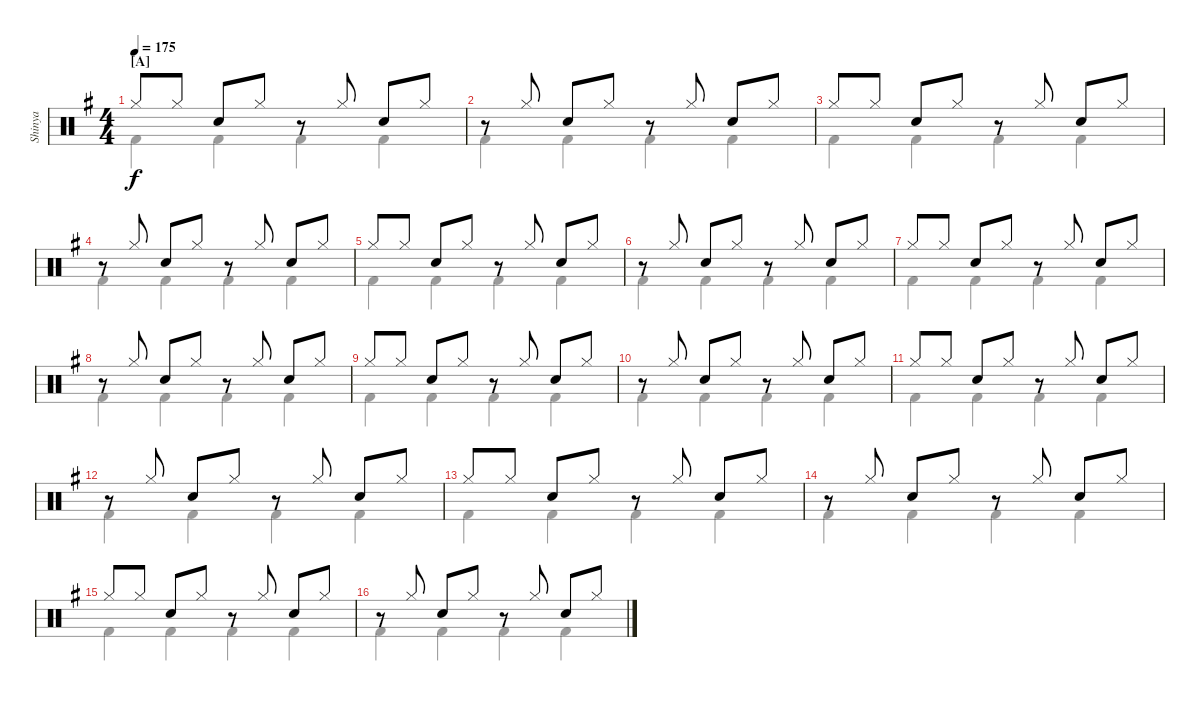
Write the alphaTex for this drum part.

\track ("Shinya" "Shinya") {instrument percussion}
\staff {score}
\articulation defaults
\voice
\ts (4 4)
\section ("" "[A]")
\tempo 175
\clef neutral
\ks g "Hi-Hat (closed)".8{dy f} "Hi-Hat (closed)".8 "Snare (hit) 2".8 "Hi-Hat (closed)".8
r.8 "Hi-Hat (closed)".8 "Snare (hit) 2".8 "Hi-Hat (closed)".8 |
r.8 "Hi-Hat (closed)".8 "Snare (hit) 2".8 "Hi-Hat (closed)".8 r.8 "Hi-Hat (closed)".8 "Snare (hit) 2".8 "Hi-Hat (closed)".8 |
"Hi-Hat (closed)".8 "Hi-Hat (closed)".8 "Snare (hit) 2".8 "Hi-Hat (closed)".8 r.8 "Hi-Hat (closed)".8 "Snare (hit) 2".8 "Hi-Hat (closed)".8 |
r.8 "Hi-Hat (closed)".8 "Snare (hit) 2".8 "Hi-Hat (closed)".8 r.8 "Hi-Hat (closed)".8 "Snare (hit) 2".8 "Hi-Hat (closed)".8 |
"Hi-Hat (closed)".8 "Hi-Hat (closed)".8 "Snare (hit) 2".8 "Hi-Hat (closed)".8 r.8 "Hi-Hat (closed)".8 "Snare (hit) 2".8 "Hi-Hat (closed)".8 |
r.8 "Hi-Hat (closed)".8 "Snare (hit) 2".8 "Hi-Hat (closed)".8 r.8 "Hi-Hat (closed)".8 "Snare (hit) 2".8 "Hi-Hat (closed)".8 |
"Hi-Hat (closed)".8 "Hi-Hat (closed)".8 "Snare (hit) 2".8 "Hi-Hat (closed)".8 r.8 "Hi-Hat (closed)".8 "Snare (hit) 2".8 "Hi-Hat (closed)".8 |
r.8 "Hi-Hat (closed)".8 "Snare (hit) 2".8 "Hi-Hat (closed)".8 r.8 "Hi-Hat (closed)".8 "Snare (hit) 2".8 "Hi-Hat (closed)".8 |
"Hi-Hat (closed)".8 "Hi-Hat (closed)".8 "Snare (hit) 2".8 "Hi-Hat (closed)".8 r.8 "Hi-Hat (closed)".8 "Snare (hit) 2".8 "Hi-Hat (closed)".8 |
r.8 "Hi-Hat (closed)".8 "Snare (hit) 2".8 "Hi-Hat (closed)".8 r.8 "Hi-Hat (closed)".8 "Snare (hit) 2".8 "Hi-Hat (closed)".8 |
"Hi-Hat (closed)".8 "Hi-Hat (closed)".8 "Snare (hit) 2".8 "Hi-Hat (closed)".8 r.8 "Hi-Hat (closed)".8 "Snare (hit) 2".8 "Hi-Hat (closed)".8 |
r.8 "Hi-Hat (closed)".8 "Snare (hit) 2".8 "Hi-Hat (closed)".8 r.8 "Hi-Hat (closed)".8 "Snare (hit) 2".8 "Hi-Hat (closed)".8 |
"Hi-Hat (closed)".8 "Hi-Hat (closed)".8 "Snare (hit) 2".8 "Hi-Hat (closed)".8 r.8 "Hi-Hat (closed)".8 "Snare (hit) 2".8 "Hi-Hat (closed)".8 |
r.8 "Hi-Hat (closed)".8 "Snare (hit) 2".8 "Hi-Hat (closed)".8 r.8 "Hi-Hat (closed)".8 "Snare (hit) 2".8 "Hi-Hat (closed)".8 |
"Hi-Hat (closed)".8 "Hi-Hat (closed)".8 "Snare (hit) 2".8 "Hi-Hat (closed)".8 r.8 "Hi-Hat (closed)".8 "Snare (hit) 2".8 "Hi-Hat (closed)".8 |
r.8 "Hi-Hat (closed)".8 "Snare (hit) 2".8 "Hi-Hat (closed)".8 r.8 "Hi-Hat (closed)".8 "Snare (hit) 2".8 "Hi-Hat (closed)".8
\voice
\clef neutral
\ottava regular
\simile none
\ks g "Kick (hit) 2".4{dy f} "Kick (hit) 2".4 "Kick (hit) 2".4 "Kick (hit) 2".4
|
"Kick (hit) 2".4 "Kick (hit) 2".4 "Kick (hit) 2".4 "Kick (hit) 2".4 |
"Kick (hit) 2".4 "Kick (hit) 2".4 "Kick (hit) 2".4 "Kick (hit) 2".4 |
"Kick (hit) 2".4 "Kick (hit) 2".4 "Kick (hit) 2".4 "Kick (hit) 2".4 |
"Kick (hit) 2".4 "Kick (hit) 2".4 "Kick (hit) 2".4 "Kick (hit) 2".4 |
"Kick (hit) 2".4 "Kick (hit) 2".4 "Kick (hit) 2".4 "Kick (hit) 2".4 |
"Kick (hit) 2".4 "Kick (hit) 2".4 "Kick (hit) 2".4 "Kick (hit) 2".4 |
"Kick (hit) 2".4 "Kick (hit) 2".4 "Kick (hit) 2".4 "Kick (hit) 2".4 |
"Kick (hit) 2".4 "Kick (hit) 2".4 "Kick (hit) 2".4 "Kick (hit) 2".4 |
"Kick (hit) 2".4 "Kick (hit) 2".4 "Kick (hit) 2".4 "Kick (hit) 2".4 |
"Kick (hit) 2".4 "Kick (hit) 2".4 "Kick (hit) 2".4 "Kick (hit) 2".4 |
"Kick (hit) 2".4 "Kick (hit) 2".4 "Kick (hit) 2".4 "Kick (hit) 2".4 |
"Kick (hit) 2".4 "Kick (hit) 2".4 "Kick (hit) 2".4 "Kick (hit) 2".4 |
"Kick (hit) 2".4 "Kick (hit) 2".4 "Kick (hit) 2".4 "Kick (hit) 2".4 |
"Kick (hit) 2".4 "Kick (hit) 2".4 "Kick (hit) 2".4 "Kick (hit) 2".4 |
"Kick (hit) 2".4 "Kick (hit) 2".4 "Kick (hit) 2".4 "Kick (hit) 2".4
